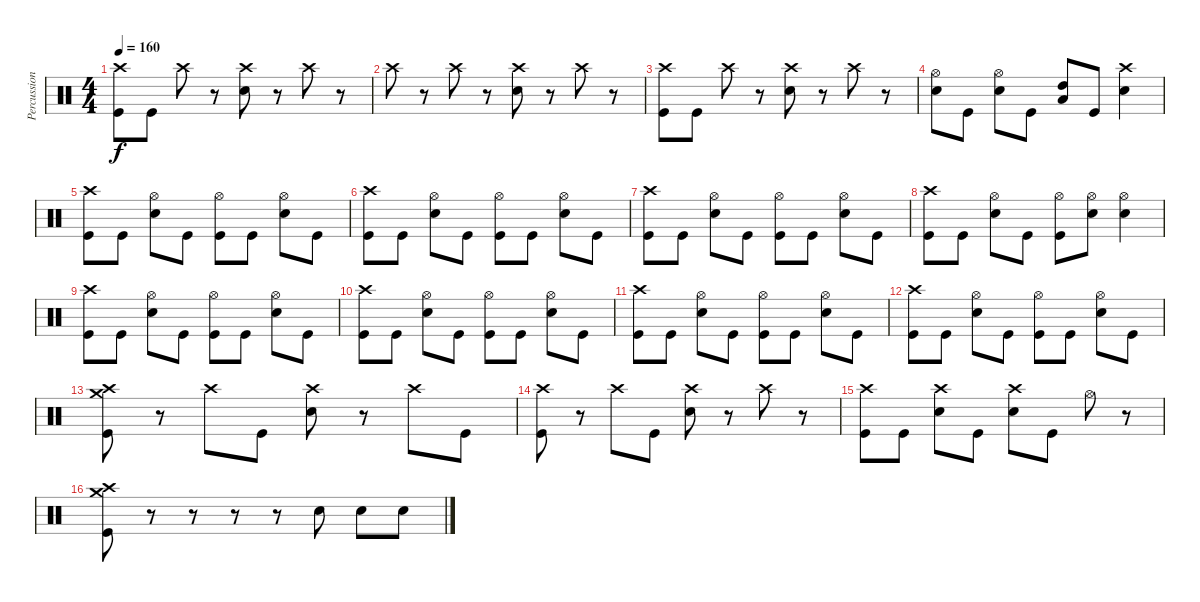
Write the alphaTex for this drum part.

\track ("Percussion" "Percussion") {instrument percussion}
\staff {score}
\articulation defaults
\ts (4 4)
\tempo 160
\clef neutral
\ks c
("Crash high (hit)" "Kick (hit)").8{dy f} "Kick (hit)".8 "Crash high (hit)".8 r.8 ("Crash high (hit)" "Snare (hit) 2").8 r.8 "Crash high (hit)".8 r.8 |
"Crash high (hit)".8 r.8 "Crash high (hit)".8 r.8 ("Crash high (hit)" "Snare (hit) 2").8 r.8 "Crash high (hit)".8 r.8 |
("Crash high (hit)" "Kick (hit)").8 "Kick (hit)".8 "Crash high (hit)".8 r.8 ("Crash high (hit)" "Snare (hit) 2").8 r.8 "Crash high (hit)".8 r.8 |
("Hi-Hat (open)" "Snare (hit) 2").8 "Kick (hit)".8 ("Hi-Hat (open)" "Snare (hit) 2").8 "Kick (hit)".8 ("Low Tom (hit)" "High Tom (hit)").8 "Kick (hit)".8 ("Crash high (hit)" "Snare (hit) 2").4 |
("Crash high (hit)" "Kick (hit)").8 "Kick (hit)".8 ("Hi-Hat (open)" "Snare (hit) 2").8 "Kick (hit)".8 ("Hi-Hat (open)" "Kick (hit)").8 "Kick (hit)".8 ("Hi-Hat (open)" "Snare (hit) 2").8 "Kick (hit)".8 |
("Crash high (hit)" "Kick (hit)").8 "Kick (hit)".8 ("Hi-Hat (open)" "Snare (hit) 2").8 "Kick (hit)".8 ("Hi-Hat (open)" "Kick (hit)").8 "Kick (hit)".8 ("Hi-Hat (open)" "Snare (hit) 2").8 "Kick (hit)".8 |
("Crash high (hit)" "Kick (hit)").8 "Kick (hit)".8 ("Hi-Hat (open)" "Snare (hit) 2").8 "Kick (hit)".8 ("Hi-Hat (open)" "Kick (hit)").8 "Kick (hit)".8 ("Hi-Hat (open)" "Snare (hit) 2").8 "Kick (hit)".8 |
("Crash high (hit)" "Kick (hit)").8 "Kick (hit)".8 ("Hi-Hat (open)" "Snare (hit) 2").8 "Kick (hit)".8 ("Hi-Hat (open)" "Kick (hit)").8 ("Hi-Hat (open)" "Snare (hit) 2").8 ("Hi-Hat (open)" "Snare (hit) 2").4 |
("Crash high (hit)" "Kick (hit)").8 "Kick (hit)".8 ("Hi-Hat (open)" "Snare (hit) 2").8 "Kick (hit)".8 ("Hi-Hat (open)" "Kick (hit)").8 "Kick (hit)".8 ("Hi-Hat (open)" "Snare (hit) 2").8 "Kick (hit)".8 |
("Crash high (hit)" "Kick (hit)").8 "Kick (hit)".8 ("Hi-Hat (open)" "Snare (hit) 2").8 "Kick (hit)".8 ("Hi-Hat (open)" "Kick (hit)").8 "Kick (hit)".8 ("Hi-Hat (open)" "Snare (hit) 2").8 "Kick (hit)".8 |
("Crash high (hit)" "Kick (hit)").8 "Kick (hit)".8 ("Hi-Hat (open)" "Snare (hit) 2").8 "Kick (hit)".8 ("Hi-Hat (open)" "Kick (hit)").8 "Kick (hit)".8 ("Hi-Hat (open)" "Snare (hit) 2").8 "Kick (hit)".8 |
("Crash high (hit)" "Kick (hit)").8 "Kick (hit)".8 ("Hi-Hat (open)" "Snare (hit) 2").8 "Kick (hit)".8 ("Hi-Hat (open)" "Kick (hit)").8 "Kick (hit)".8 ("Hi-Hat (open)" "Snare (hit) 2").8 "Kick (hit)".8 |
("Crash high (hit)" "Crash medium (hit)" "Kick (hit)").8 r.8 "Crash high (hit)".8 "Kick (hit)".8 ("Crash high (hit)" "Snare (hit) 2").8 r.8 "Crash high (hit)".8 "Kick (hit)".8 |
("Crash high (hit)" "Kick (hit)").8 r.8 "Crash high (hit)".8 "Kick (hit)".8 ("Crash high (hit)" "Snare (hit) 2").8 r.8 "Crash high (hit)".8 r.8 |
("Crash high (hit)" "Kick (hit)").8 "Kick (hit)".8 ("Crash high (hit)" "Snare (hit) 2").8 "Kick (hit)".8 ("Crash high (hit)" "Snare (hit) 2").8 "Kick (hit)".8 "Hi-Hat (open)".8 r.8 |
("Crash medium (hit)" "Crash high (hit)" "Kick (hit)").8 r.8 r.8 r.8 r.8 "Hand Clap (hit)".8 "Hand Clap (hit)".8 "Hand Clap (hit)".8
